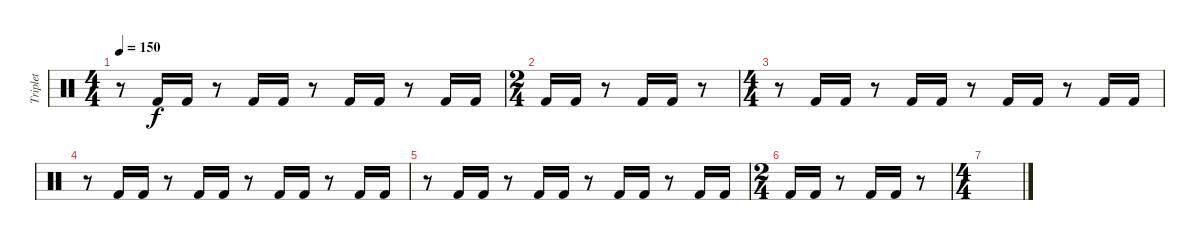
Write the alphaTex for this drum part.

\track ("Triplet" "Triplet") {instrument percussion}
\staff {score}
\articulation defaults
\ts (4 4)
\tempo 150
\clef neutral
\ks c
r.8{dy f} "Kick (hit) 2".16 "Kick (hit) 2".16 r.8 "Kick (hit) 2".16 "Kick (hit) 2".16 r.8 "Kick (hit) 2".16 "Kick (hit) 2".16 r.8 "Kick (hit) 2".16 "Kick (hit) 2".16 |
\ts (2 4)
"Kick (hit) 2".16 "Kick (hit) 2".16 r.8 "Kick (hit) 2".16 "Kick (hit) 2".16 r.8 |
\ts (4 4)
r.8 "Kick (hit) 2".16 "Kick (hit) 2".16 r.8 "Kick (hit) 2".16 "Kick (hit) 2".16 r.8 "Kick (hit) 2".16 "Kick (hit) 2".16 r.8 "Kick (hit) 2".16 "Kick (hit) 2".16 |
r.8 "Kick (hit) 2".16 "Kick (hit) 2".16 r.8 "Kick (hit) 2".16 "Kick (hit) 2".16 r.8 "Kick (hit) 2".16 "Kick (hit) 2".16 r.8 "Kick (hit) 2".16 "Kick (hit) 2".16 |
r.8 "Kick (hit) 2".16 "Kick (hit) 2".16 r.8 "Kick (hit) 2".16 "Kick (hit) 2".16 r.8 "Kick (hit) 2".16 "Kick (hit) 2".16 r.8 "Kick (hit) 2".16 "Kick (hit) 2".16 |
\ts (2 4)
"Kick (hit) 2".16 "Kick (hit) 2".16 r.8 "Kick (hit) 2".16 "Kick (hit) 2".16 r.8 |
\ts (4 4)
